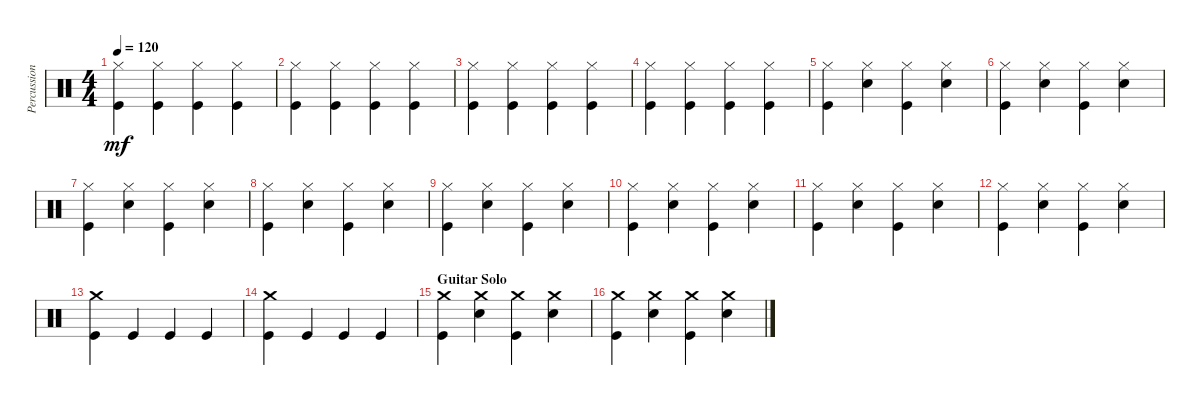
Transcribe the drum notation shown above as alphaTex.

\track ("Percussion" "Percussion") {instrument percussion}
\staff {score}
\articulation defaults
\ts (4 4)
\tempo 120
\clef neutral
\ks c
("Hi-Hat (closed)" "Kick (hit)").4{dy mf} ("Hi-Hat (closed)" "Kick (hit)").4 ("Hi-Hat (closed)" "Kick (hit)").4 ("Hi-Hat (closed)" "Kick (hit)").4 |
("Hi-Hat (closed)" "Kick (hit)").4 ("Hi-Hat (closed)" "Kick (hit)").4 ("Hi-Hat (closed)" "Kick (hit)").4 ("Hi-Hat (closed)" "Kick (hit)").4 |
("Hi-Hat (closed)" "Kick (hit)").4 ("Hi-Hat (closed)" "Kick (hit)").4 ("Hi-Hat (closed)" "Kick (hit)").4 ("Hi-Hat (closed)" "Kick (hit)").4 |
("Hi-Hat (closed)" "Kick (hit)").4 ("Hi-Hat (closed)" "Kick (hit)").4 ("Hi-Hat (closed)" "Kick (hit)").4 ("Hi-Hat (closed)" "Kick (hit)").4 |
("Hi-Hat (closed)" "Kick (hit)").4 ("Hi-Hat (closed)" "Snare (hit) 2").4 ("Hi-Hat (closed)" "Kick (hit)").4 ("Hi-Hat (closed)" "Snare (hit) 2").4 |
("Hi-Hat (closed)" "Kick (hit)").4 ("Hi-Hat (closed)" "Snare (hit) 2").4 ("Hi-Hat (closed)" "Kick (hit)").4 ("Hi-Hat (closed)" "Snare (hit) 2").4 |
("Hi-Hat (closed)" "Kick (hit)").4 ("Hi-Hat (closed)" "Snare (hit) 2").4 ("Hi-Hat (closed)" "Kick (hit)").4 ("Hi-Hat (closed)" "Snare (hit) 2").4 |
("Hi-Hat (closed)" "Kick (hit)").4 ("Hi-Hat (closed)" "Snare (hit) 2").4 ("Hi-Hat (closed)" "Kick (hit)").4 ("Hi-Hat (closed)" "Snare (hit) 2").4 |
("Hi-Hat (closed)" "Kick (hit)").4 ("Hi-Hat (closed)" "Snare (hit) 2").4 ("Hi-Hat (closed)" "Kick (hit)").4 ("Hi-Hat (closed)" "Snare (hit) 2").4 |
("Hi-Hat (closed)" "Kick (hit)").4 ("Hi-Hat (closed)" "Snare (hit) 2").4 ("Hi-Hat (closed)" "Kick (hit)").4 ("Hi-Hat (closed)" "Snare (hit) 2").4 |
("Hi-Hat (closed)" "Kick (hit)").4 ("Hi-Hat (closed)" "Snare (hit) 2").4 ("Hi-Hat (closed)" "Kick (hit)").4 ("Hi-Hat (closed)" "Snare (hit) 2").4 |
("Hi-Hat (closed)" "Kick (hit)").4 ("Hi-Hat (closed)" "Snare (hit) 2").4 ("Hi-Hat (closed)" "Kick (hit)").4 ("Hi-Hat (closed)" "Snare (hit) 2").4 |
("Crash medium (hit)" "Kick (hit)").4 "Kick (hit)".4 "Kick (hit)".4 "Kick (hit)".4 |
("Kick (hit)" "Crash medium (hit)").4 "Kick (hit)".4 "Kick (hit)".4 "Kick (hit)".4 |
\section ("" "Guitar Solo")
("Crash medium (hit)" "Kick (hit)").4 ("Crash medium (hit)" "Snare (hit) 2").4 ("Crash medium (hit)" "Kick (hit)").4 ("Crash medium (hit)" "Snare (hit) 2").4 |
("Crash medium (hit)" "Kick (hit)").4 ("Crash medium (hit)" "Snare (hit) 2").4 ("Crash medium (hit)" "Kick (hit)").4 ("Crash medium (hit)" "Snare (hit) 2").4
